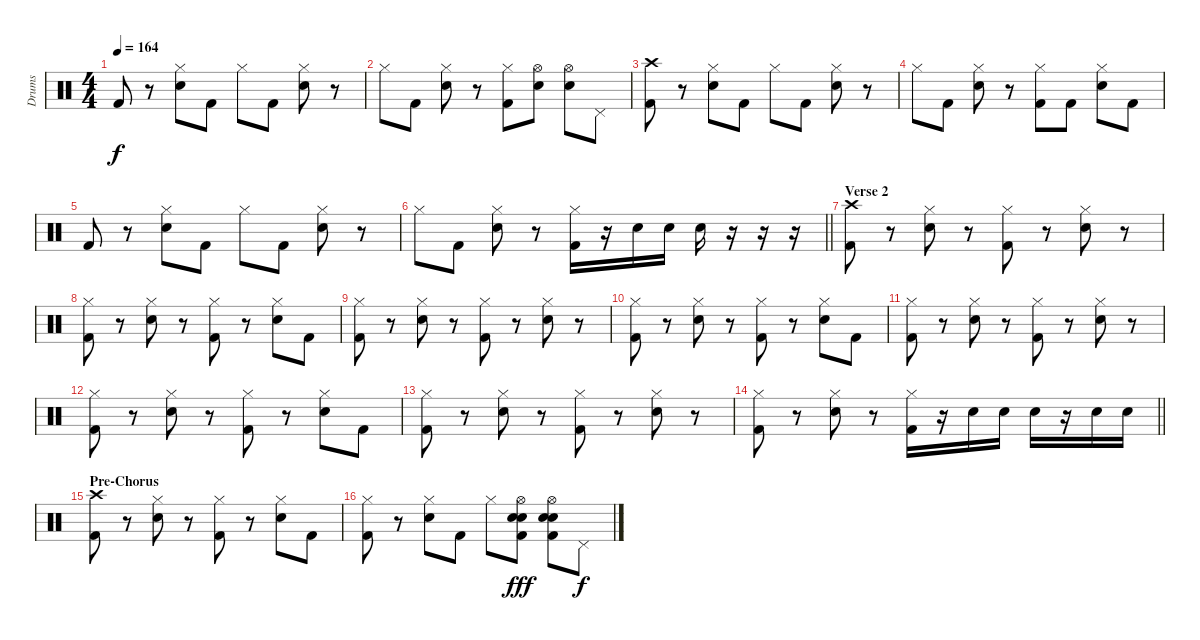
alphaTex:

\track ("Drums" "Drums") {instrument percussion}
\staff {score}
\articulation defaults
\ts (4 4)
\tempo 164
\clef neutral
\ks c "Kick (hit) 2".8{dy f}
r.8 ("Hi-Hat (closed)" "Snare (hit) 2").8 "Kick (hit) 2".8 "Hi-Hat (closed)".8 "Kick (hit) 2".8 ("Hi-Hat (closed)" "Snare (hit) 2").8 r.8 |
"Hi-Hat (closed)".8 "Kick (hit) 2".8 ("Hi-Hat (closed)" "Snare (hit) 2").8 r.8 ("Hi-Hat (closed)" "Kick (hit) 2").8 ("Hi-Hat (open)" "Snare (hit) 2").8 ("Hi-Hat (open)" "Snare (hit) 2").8 "Pedal Hi-Hat (hit)".8 |
("Crash high (hit)" "Kick (hit) 2").8 r.8 ("Hi-Hat (closed)" "Snare (hit) 2").8 "Kick (hit) 2".8 "Hi-Hat (closed)".8 "Kick (hit) 2".8 ("Hi-Hat (closed)" "Snare (hit) 2").8 r.8 |
"Hi-Hat (closed)".8 "Kick (hit) 2".8 ("Hi-Hat (closed)" "Snare (hit) 2").8 r.8 ("Hi-Hat (closed)" "Kick (hit) 2").8 "Kick (hit) 2".8 ("Hi-Hat (closed)" "Snare (hit) 2").8 "Kick (hit) 2".8 |
"Kick (hit) 2".8 r.8 ("Hi-Hat (closed)" "Snare (hit) 2").8 "Kick (hit) 2".8 "Hi-Hat (closed)".8 "Kick (hit) 2".8 ("Hi-Hat (closed)" "Snare (hit) 2").8 r.8 |
\barLineRight lightlight "Hi-Hat (closed)".8 "Kick (hit) 2".8
("Hi-Hat (closed)" "Snare (hit) 2").8 r.8 ("Hi-Hat (closed)" "Kick (hit) 2").16 r.16 "Snare (hit) 2".16 "Snare (hit) 2".16 "Snare (hit) 2".16 r.16 r.16 r.16 |
\section ("" "Verse 2")
("Crash high (hit)" "Kick (hit) 2").8 r.8 ("Hi-Hat (closed)" "Snare (hit) 2").8 r.8 ("Hi-Hat (closed)" "Kick (hit) 2").8 r.8 ("Hi-Hat (closed)" "Snare (hit) 2").8 r.8 |
("Hi-Hat (closed)" "Kick (hit) 2").8 r.8 ("Hi-Hat (closed)" "Snare (hit) 2").8 r.8 ("Hi-Hat (closed)" "Kick (hit) 2").8 r.8 ("Hi-Hat (closed)" "Snare (hit) 2").8 "Kick (hit) 2".8 |
("Hi-Hat (closed)" "Kick (hit) 2").8 r.8 ("Hi-Hat (closed)" "Snare (hit) 2").8 r.8 ("Hi-Hat (closed)" "Kick (hit) 2").8 r.8 ("Hi-Hat (closed)" "Snare (hit) 2").8 r.8 |
("Hi-Hat (closed)" "Kick (hit) 2").8 r.8 ("Hi-Hat (closed)" "Snare (hit) 2").8 r.8 ("Hi-Hat (closed)" "Kick (hit) 2").8 r.8 ("Hi-Hat (closed)" "Snare (hit) 2").8 "Kick (hit) 2".8 |
("Hi-Hat (closed)" "Kick (hit) 2").8 r.8 ("Hi-Hat (closed)" "Snare (hit) 2").8 r.8 ("Hi-Hat (closed)" "Kick (hit) 2").8 r.8 ("Hi-Hat (closed)" "Snare (hit) 2").8 r.8 |
("Hi-Hat (closed)" "Kick (hit) 2").8 r.8 ("Hi-Hat (closed)" "Snare (hit) 2").8 r.8 ("Hi-Hat (closed)" "Kick (hit) 2").8 r.8 ("Hi-Hat (closed)" "Snare (hit) 2").8 "Kick (hit) 2".8 |
("Hi-Hat (closed)" "Kick (hit) 2").8 r.8 ("Hi-Hat (closed)" "Snare (hit) 2").8 r.8 ("Hi-Hat (closed)" "Kick (hit) 2").8 r.8 ("Hi-Hat (closed)" "Snare (hit) 2").8 r.8 |
\barLineRight lightlight
("Hi-Hat (closed)" "Kick (hit) 2").8 r.8 ("Hi-Hat (closed)" "Snare (hit) 2").8 r.8 ("Hi-Hat (closed)" "Kick (hit) 2").16 r.16 "Snare (hit) 2".16 "Snare (hit) 2".16 "Snare (hit) 2".16 r.16 "Snare (hit) 2".16 "Snare (hit) 2".16 |
\section ("" "Pre-Chorus")
("Crash high (hit)" "Kick (hit) 2").8 r.8 ("Hi-Hat (closed)" "Snare (hit) 2").8 r.8 ("Hi-Hat (closed)" "Kick (hit) 2").8 r.8 ("Hi-Hat (closed)" "Snare (hit) 2").8 "Kick (hit) 2".8 |
("Hi-Hat (closed)" "Kick (hit) 2").8 r.8 ("Hi-Hat (closed)" "Snare (hit) 2").8 "Kick (hit) 2".8 "Hi-Hat (closed)".8 ("Hi-Hat (open)" "Snare (hit) 2" "Snare (hit) 2" "Kick (hit) 2").8{dy fff} ("Hi-Hat (open)" "Snare (hit) 2" "Snare (hit) 2" "Kick (hit) 2").8 "Pedal Hi-Hat (hit)".8{dy f}
